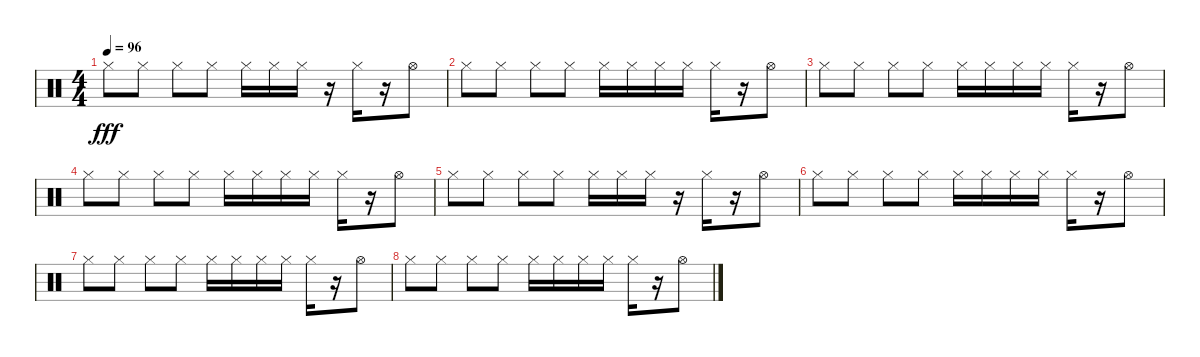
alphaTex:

\track "" {instrument percussion}
\staff {score}
\articulation defaults
\ts (4 4)
\tempo 96
\clef neutral
\ks c "Hi-Hat (closed)".8{dy fff volume 14} "Hi-Hat (closed)".8{volume 14} "Hi-Hat (closed)".8{volume 13} "Hi-Hat (closed)".8{volume 13} "Hi-Hat (closed)".16{volume 13} "Hi-Hat (closed)".16{volume 13} "Hi-Hat (closed)".16{volume 13}
r.16 "Hi-Hat (closed)".16{volume 12} r.16 "Hi-Hat (open)".8{volume 12} |
"Hi-Hat (closed)".8{volume 12} "Hi-Hat (closed)".8{volume 12} "Hi-Hat (closed)".8{volume 12} "Hi-Hat (closed)".8{volume 11} "Hi-Hat (closed)".16{volume 11} "Hi-Hat (closed)".16{volume 11} "Hi-Hat (closed)".16{volume 11} "Hi-Hat (closed)".16{volume 11} "Hi-Hat (closed)".16{volume 11} r.16 "Hi-Hat (open)".8{volume 10} |
"Hi-Hat (closed)".8{volume 10} "Hi-Hat (closed)".8{volume 10} "Hi-Hat (closed)".8{volume 10} "Hi-Hat (closed)".8{volume 10} "Hi-Hat (closed)".16{volume 10} "Hi-Hat (closed)".16{volume 9} "Hi-Hat (closed)".16{volume 9} "Hi-Hat (closed)".16{volume 9} "Hi-Hat (closed)".16{volume 9} r.16 "Hi-Hat (open)".8{volume 9} |
"Hi-Hat (closed)".8{volume 9} "Hi-Hat (closed)".8{volume 8} "Hi-Hat (closed)".8{volume 8} "Hi-Hat (closed)".8{volume 8} "Hi-Hat (closed)".16{volume 8} "Hi-Hat (closed)".16{volume 8} "Hi-Hat (closed)".16{volume 8} "Hi-Hat (closed)".16{volume 7} "Hi-Hat (closed)".16 r.16 "Hi-Hat (open)".8{volume 7} |
"Hi-Hat (closed)".8{volume 7} "Hi-Hat (closed)".8{volume 7} "Hi-Hat (closed)".8{volume 6} "Hi-Hat (closed)".8{volume 6} "Hi-Hat (closed)".16{volume 6} "Hi-Hat (closed)".16{volume 6} "Hi-Hat (closed)".16{volume 6} r.16 "Hi-Hat (closed)".16{volume 6} r.16 "Hi-Hat (open)".8{volume 5} |
"Hi-Hat (closed)".8{volume 5} "Hi-Hat (closed)".8{volume 5} "Hi-Hat (closed)".8{volume 5} "Hi-Hat (closed)".8{volume 4} "Hi-Hat (closed)".16{volume 4} "Hi-Hat (closed)".16{volume 4} "Hi-Hat (closed)".16 "Hi-Hat (closed)".16{volume 4} "Hi-Hat (closed)".16{volume 4} r.16 "Hi-Hat (open)".8{volume 4} |
"Hi-Hat (closed)".8{volume 3} "Hi-Hat (closed)".8{volume 3} "Hi-Hat (closed)".8{volume 3} "Hi-Hat (closed)".8{volume 3} "Hi-Hat (closed)".16{volume 2} "Hi-Hat (closed)".16 "Hi-Hat (closed)".16{volume 2} "Hi-Hat (closed)".16{volume 2} "Hi-Hat (closed)".16{volume 2} r.16 "Hi-Hat (open)".8{volume 2} |
"Hi-Hat (closed)".8{volume 2} "Hi-Hat (closed)".8{volume 2} "Hi-Hat (closed)".8{volume 1} "Hi-Hat (closed)".8{volume 1} "Hi-Hat (closed)".16{volume 1} "Hi-Hat (closed)".16{volume 1} "Hi-Hat (closed)".16{volume 1} "Hi-Hat (closed)".16{volume 0} "Hi-Hat (closed)".16{volume 0} r.16 "Hi-Hat (open)".8{volume 0}
